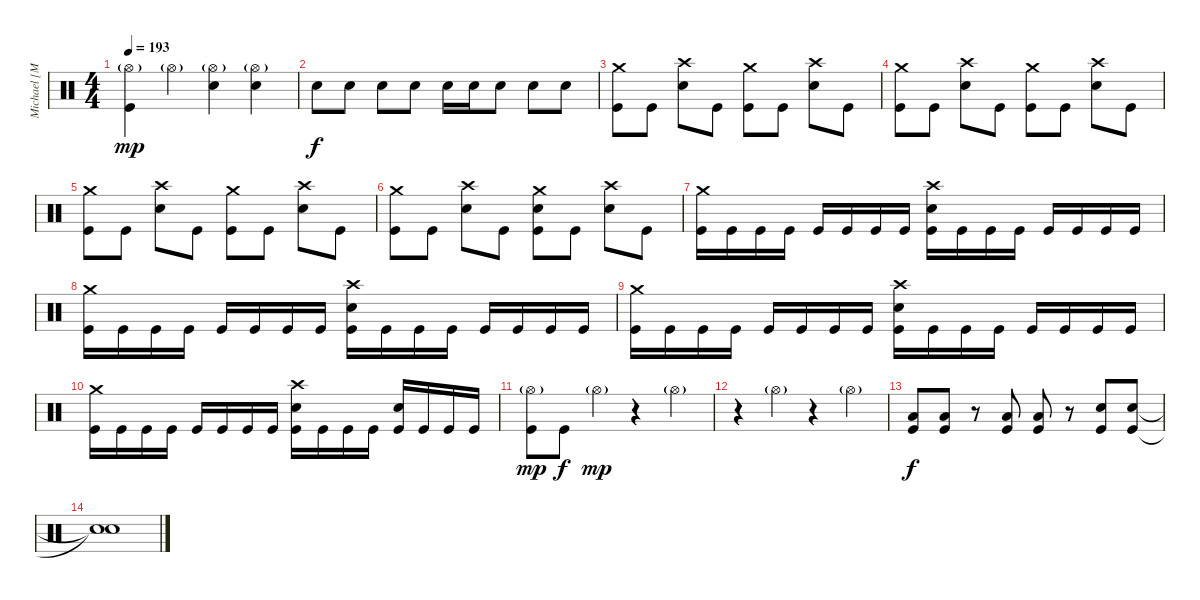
\track ("Michael [Moose] Thomas" "Michael [M") {instrument percussion}
\staff {score}
\articulation defaults
\ts (4 4)
\tempo 193
\clef neutral
\ks c
("Hi-Hat (open)"{g} "Kick (hit)").4{dy mp} "Hi-Hat (open)"{g}.4 ("Hi-Hat (open)"{g} "Snare (hit) 2").4 ("Hi-Hat (open)"{g} "Snare (hit) 2").4 |
"Snare (hit) 2".8{dy f} "Snare (hit) 2".8 "Snare (hit) 2".8 "Snare (hit) 2".8 "Snare (hit) 2".16 "Snare (hit) 2".16 "Snare (hit) 2".8 "Snare (hit) 2".8 "Snare (hit) 2".8 |
("Crash medium (hit)" "Kick (hit)").8 "Kick (hit)".8 ("Crash high (hit)" "Snare (hit) 2").8 "Kick (hit)".8 ("Crash medium (hit)" "Kick (hit)").8 "Kick (hit)".8 ("Crash high (hit)" "Snare (hit) 2").8 "Kick (hit)".8 |
("Crash medium (hit)" "Kick (hit)").8 "Kick (hit)".8 ("Crash high (hit)" "Snare (hit) 2").8 "Kick (hit)".8 ("Crash medium (hit)" "Kick (hit)").8 "Kick (hit)".8 ("Crash high (hit)" "Snare (hit) 2").8 "Kick (hit)".8 |
("Crash medium (hit)" "Kick (hit)").8 "Kick (hit)".8 ("Crash high (hit)" "Snare (hit) 2").8 "Kick (hit)".8 ("Crash medium (hit)" "Kick (hit)").8 "Kick (hit)".8 ("Crash high (hit)" "Snare (hit) 2").8 "Kick (hit)".8 |
("Crash medium (hit)" "Kick (hit)").8 "Kick (hit)".8 ("Crash high (hit)" "Snare (hit) 2").8 "Kick (hit)".8 ("Crash medium (hit)" "Snare (hit) 2" "Kick (hit)").8 "Kick (hit)".8 ("Crash high (hit)" "Snare (hit) 2").8 "Kick (hit)".8 |
("Crash medium (hit)" "Kick (hit)").16 "Kick (hit)".16 "Kick (hit)".16 "Kick (hit)".16 "Kick (hit)".16 "Kick (hit)".16 "Kick (hit)".16 "Kick (hit)".16 ("Crash high (hit)" "Snare (hit) 2" "Kick (hit)").16 "Kick (hit)".16 "Kick (hit)".16 "Kick (hit)".16 "Kick (hit)".16 "Kick (hit)".16 "Kick (hit)".16 "Kick (hit)".16 |
("Crash medium (hit)" "Kick (hit)").16 "Kick (hit)".16 "Kick (hit)".16 "Kick (hit)".16 "Kick (hit)".16 "Kick (hit)".16 "Kick (hit)".16 "Kick (hit)".16 ("Crash high (hit)" "Snare (hit) 2" "Kick (hit)").16 "Kick (hit)".16 "Kick (hit)".16 "Kick (hit)".16 "Kick (hit)".16 "Kick (hit)".16 "Kick (hit)".16 "Kick (hit)".16 |
("Crash medium (hit)" "Kick (hit)").16 "Kick (hit)".16 "Kick (hit)".16 "Kick (hit)".16 "Kick (hit)".16 "Kick (hit)".16 "Kick (hit)".16 "Kick (hit)".16 ("Crash high (hit)" "Snare (hit) 2" "Kick (hit)").16 "Kick (hit)".16 "Kick (hit)".16 "Kick (hit)".16 "Kick (hit)".16 "Kick (hit)".16 "Kick (hit)".16 "Kick (hit)".16 |
("Crash medium (hit)" "Kick (hit)").16 "Kick (hit)".16 "Kick (hit)".16 "Kick (hit)".16 "Kick (hit)".16 "Kick (hit)".16 "Kick (hit)".16 "Kick (hit)".16 ("Crash high (hit)" "Snare (hit) 2" "Kick (hit)").16 "Kick (hit)".16 "Kick (hit)".16 "Kick (hit)".16 ("Snare (hit) 2" "Kick (hit)").16 "Kick (hit)".16 "Kick (hit)".16 "Kick (hit)".16 |
("Hi-Hat (open)"{g} "Kick (hit)").8{dy mp} "Kick (hit)".8{dy f} "Hi-Hat (open)"{g}.4{dy mp} r.4 "Hi-Hat (open)"{g}.4 |
r.4 "Hi-Hat (open)"{g}.4 r.4 "Hi-Hat (open)"{g}.4 |
("Low Floor Tom (hit)" "Kick (hit)").8{dy f} ("Low Floor Tom (hit)" "Kick (hit)").8 r.8 ("Low Tom (hit)" "Kick (hit)").8 ("Low Tom (hit)" "Kick (hit)").8 r.8 ("Snare (hit) 2" "Kick (hit)").8 ("Snare (hit) 2" "Kick (hit)").8 |
("Snare (hit)"{t} "Snare (hit)"{t}).1
